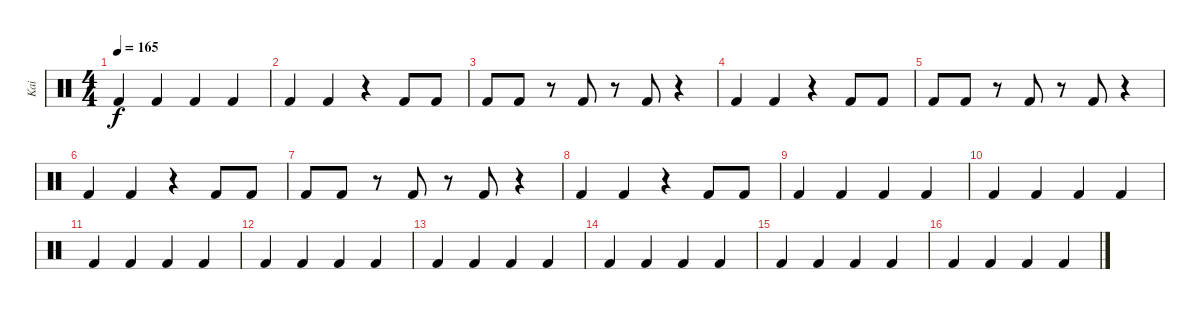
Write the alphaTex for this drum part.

\track ("Kai" "Kai") {instrument percussion}
\staff {score}
\articulation defaults
\ts (4 4)
\tempo 165
\clef neutral
\ks c "Kick (hit) 2".4{dy f} "Kick (hit) 2".4 "Kick (hit) 2".4 "Kick (hit) 2".4
|
"Kick (hit) 2".4 "Kick (hit) 2".4 r.4 "Kick (hit) 2".8 "Kick (hit) 2".8 |
"Kick (hit) 2".8 "Kick (hit) 2".8 r.8 "Kick (hit) 2".8 r.8 "Kick (hit) 2".8 r.4 |
"Kick (hit) 2".4 "Kick (hit) 2".4 r.4 "Kick (hit) 2".8 "Kick (hit) 2".8 |
"Kick (hit) 2".8 "Kick (hit) 2".8 r.8 "Kick (hit) 2".8 r.8 "Kick (hit) 2".8 r.4 |
"Kick (hit) 2".4 "Kick (hit) 2".4 r.4 "Kick (hit) 2".8 "Kick (hit) 2".8 |
"Kick (hit) 2".8 "Kick (hit) 2".8 r.8 "Kick (hit) 2".8 r.8 "Kick (hit) 2".8 r.4 |
"Kick (hit) 2".4 "Kick (hit) 2".4 r.4 "Kick (hit) 2".8 "Kick (hit) 2".8 |
"Kick (hit) 2".4 "Kick (hit) 2".4 "Kick (hit) 2".4 "Kick (hit) 2".4 |
"Kick (hit) 2".4 "Kick (hit) 2".4 "Kick (hit) 2".4 "Kick (hit) 2".4 |
"Kick (hit) 2".4 "Kick (hit) 2".4 "Kick (hit) 2".4 "Kick (hit) 2".4 |
"Kick (hit) 2".4 "Kick (hit) 2".4 "Kick (hit) 2".4 "Kick (hit) 2".4 |
"Kick (hit) 2".4 "Kick (hit) 2".4 "Kick (hit) 2".4 "Kick (hit) 2".4 |
"Kick (hit) 2".4 "Kick (hit) 2".4 "Kick (hit) 2".4 "Kick (hit) 2".4 |
"Kick (hit) 2".4 "Kick (hit) 2".4 "Kick (hit) 2".4 "Kick (hit) 2".4 |
"Kick (hit) 2".4 "Kick (hit) 2".4 "Kick (hit) 2".4 "Kick (hit) 2".4
